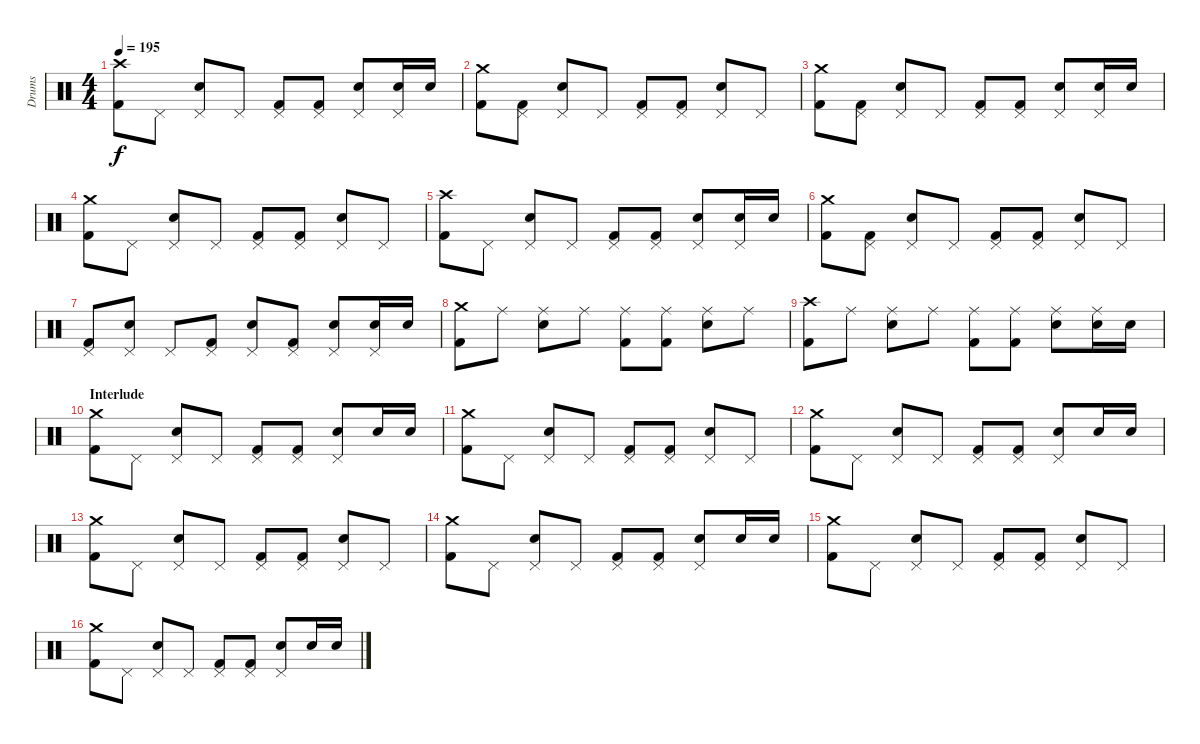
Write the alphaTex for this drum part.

\track ("Drums" "Drums") {instrument percussion}
\staff {score}
\articulation defaults
\ts (4 4)
\tempo 195
\clef neutral
\ks c
("Crash high (hit)" "Kick (hit) 2").8{dy f} "Pedal Hi-Hat (hit)".8 ("Pedal Hi-Hat (hit)" "Electric Snare (hit)").8 "Pedal Hi-Hat (hit)".8 ("Pedal Hi-Hat (hit)" "Kick (hit) 2").8 ("Pedal Hi-Hat (hit)" "Kick (hit) 2").8 ("Pedal Hi-Hat (hit)" "Electric Snare (hit)").8 ("Pedal Hi-Hat (hit)" "Electric Snare (hit)").16 "Electric Snare (hit)".16 |
("Crash medium (hit)" "Kick (hit) 2").8 ("Pedal Hi-Hat (hit)" "Kick (hit) 2").8 ("Pedal Hi-Hat (hit)" "Electric Snare (hit)").8 "Pedal Hi-Hat (hit)".8 ("Pedal Hi-Hat (hit)" "Kick (hit) 2").8 ("Pedal Hi-Hat (hit)" "Kick (hit) 2").8 ("Pedal Hi-Hat (hit)" "Electric Snare (hit)").8 "Pedal Hi-Hat (hit)".8 |
("Crash medium (hit)" "Kick (hit) 2").8 ("Pedal Hi-Hat (hit)" "Kick (hit) 2").8 ("Pedal Hi-Hat (hit)" "Electric Snare (hit)").8 "Pedal Hi-Hat (hit)".8 ("Pedal Hi-Hat (hit)" "Kick (hit) 2").8 ("Pedal Hi-Hat (hit)" "Kick (hit) 2").8 ("Pedal Hi-Hat (hit)" "Electric Snare (hit)").8 ("Pedal Hi-Hat (hit)" "Electric Snare (hit)").16 "Electric Snare (hit)".16 |
("Crash medium (hit)" "Kick (hit) 2").8 "Pedal Hi-Hat (hit)".8 ("Pedal Hi-Hat (hit)" "Electric Snare (hit)").8 "Pedal Hi-Hat (hit)".8 ("Pedal Hi-Hat (hit)" "Kick (hit) 2").8 ("Pedal Hi-Hat (hit)" "Kick (hit) 2").8 ("Pedal Hi-Hat (hit)" "Electric Snare (hit)").8 "Pedal Hi-Hat (hit)".8 |
("Crash high (hit)" "Kick (hit) 2").8 "Pedal Hi-Hat (hit)".8 ("Pedal Hi-Hat (hit)" "Electric Snare (hit)").8 "Pedal Hi-Hat (hit)".8 ("Pedal Hi-Hat (hit)" "Kick (hit) 2").8 ("Pedal Hi-Hat (hit)" "Kick (hit) 2").8 ("Pedal Hi-Hat (hit)" "Electric Snare (hit)").8 ("Pedal Hi-Hat (hit)" "Electric Snare (hit)").16 "Electric Snare (hit)".16 |
("Crash medium (hit)" "Kick (hit) 2").8 ("Pedal Hi-Hat (hit)" "Kick (hit) 2").8 ("Pedal Hi-Hat (hit)" "Electric Snare (hit)").8 "Pedal Hi-Hat (hit)".8 ("Pedal Hi-Hat (hit)" "Kick (hit) 2").8 ("Pedal Hi-Hat (hit)" "Kick (hit) 2").8 ("Pedal Hi-Hat (hit)" "Electric Snare (hit)").8 "Pedal Hi-Hat (hit)".8 |
("Pedal Hi-Hat (hit)" "Kick (hit) 2").8 ("Pedal Hi-Hat (hit)" "Electric Snare (hit)").8 "Pedal Hi-Hat (hit)".8 ("Pedal Hi-Hat (hit)" "Kick (hit) 2").8 ("Pedal Hi-Hat (hit)" "Electric Snare (hit)").8 ("Pedal Hi-Hat (hit)" "Kick (hit) 2").8 ("Pedal Hi-Hat (hit)" "Electric Snare (hit)").8 ("Pedal Hi-Hat (hit)" "Electric Snare (hit)").16 "Electric Snare (hit)".16 |
("Crash medium (hit)" "Kick (hit) 2").8 "Ride (middle)".8 ("Ride (middle)" "Electric Snare (hit)").8 "Ride (middle)".8 ("Ride (middle)" "Kick (hit) 2").8 ("Ride (middle)" "Kick (hit) 2").8 ("Ride (middle)" "Electric Snare (hit)").8 "Ride (middle)".8 |
("Crash high (hit)" "Kick (hit) 2").8 "Ride (middle)".8 ("Ride (middle)" "Electric Snare (hit)").8 "Ride (middle)".8 ("Ride (middle)" "Kick (hit) 2").8 ("Ride (middle)" "Kick (hit) 2").8 ("Ride (middle)" "Electric Snare (hit)").8 ("Ride (middle)" "Electric Snare (hit)").16 "Electric Snare (hit)".16 |
\section ("" "Interlude")
("Crash medium (hit)" "Kick (hit) 2").8 "Pedal Hi-Hat (hit)".8 ("Pedal Hi-Hat (hit)" "Electric Snare (hit)").8 "Pedal Hi-Hat (hit)".8 ("Pedal Hi-Hat (hit)" "Kick (hit) 2").8 ("Pedal Hi-Hat (hit)" "Kick (hit) 2").8 ("Pedal Hi-Hat (hit)" "Electric Snare (hit)").8 "Electric Snare (hit)".16 "Electric Snare (hit)".16 |
("Crash medium (hit)" "Kick (hit) 2").8 "Pedal Hi-Hat (hit)".8 ("Pedal Hi-Hat (hit)" "Electric Snare (hit)").8 "Pedal Hi-Hat (hit)".8 ("Pedal Hi-Hat (hit)" "Kick (hit) 2").8 ("Pedal Hi-Hat (hit)" "Kick (hit) 2").8 ("Pedal Hi-Hat (hit)" "Electric Snare (hit)").8 "Pedal Hi-Hat (hit)".8 |
("Crash medium (hit)" "Kick (hit) 2").8 "Pedal Hi-Hat (hit)".8 ("Pedal Hi-Hat (hit)" "Electric Snare (hit)").8 "Pedal Hi-Hat (hit)".8 ("Pedal Hi-Hat (hit)" "Kick (hit) 2").8 ("Pedal Hi-Hat (hit)" "Kick (hit) 2").8 ("Pedal Hi-Hat (hit)" "Electric Snare (hit)").8 "Electric Snare (hit)".16 "Electric Snare (hit)".16 |
("Crash medium (hit)" "Kick (hit) 2").8 "Pedal Hi-Hat (hit)".8 ("Pedal Hi-Hat (hit)" "Electric Snare (hit)").8 "Pedal Hi-Hat (hit)".8 ("Pedal Hi-Hat (hit)" "Kick (hit) 2").8 ("Pedal Hi-Hat (hit)" "Kick (hit) 2").8 ("Pedal Hi-Hat (hit)" "Electric Snare (hit)").8 "Pedal Hi-Hat (hit)".8 |
("Crash medium (hit)" "Kick (hit) 2").8 "Pedal Hi-Hat (hit)".8 ("Pedal Hi-Hat (hit)" "Electric Snare (hit)").8 "Pedal Hi-Hat (hit)".8 ("Pedal Hi-Hat (hit)" "Kick (hit) 2").8 ("Pedal Hi-Hat (hit)" "Kick (hit) 2").8 ("Pedal Hi-Hat (hit)" "Electric Snare (hit)").8 "Electric Snare (hit)".16 "Electric Snare (hit)".16 |
("Crash medium (hit)" "Kick (hit) 2").8 "Pedal Hi-Hat (hit)".8 ("Pedal Hi-Hat (hit)" "Electric Snare (hit)").8 "Pedal Hi-Hat (hit)".8 ("Pedal Hi-Hat (hit)" "Kick (hit) 2").8 ("Pedal Hi-Hat (hit)" "Kick (hit) 2").8 ("Pedal Hi-Hat (hit)" "Electric Snare (hit)").8 "Pedal Hi-Hat (hit)".8 |
("Crash medium (hit)" "Kick (hit) 2").8 "Pedal Hi-Hat (hit)".8 ("Pedal Hi-Hat (hit)" "Electric Snare (hit)").8 "Pedal Hi-Hat (hit)".8 ("Pedal Hi-Hat (hit)" "Kick (hit) 2").8 ("Pedal Hi-Hat (hit)" "Kick (hit) 2").8 ("Pedal Hi-Hat (hit)" "Electric Snare (hit)").8 "Electric Snare (hit)".16 "Electric Snare (hit)".16
